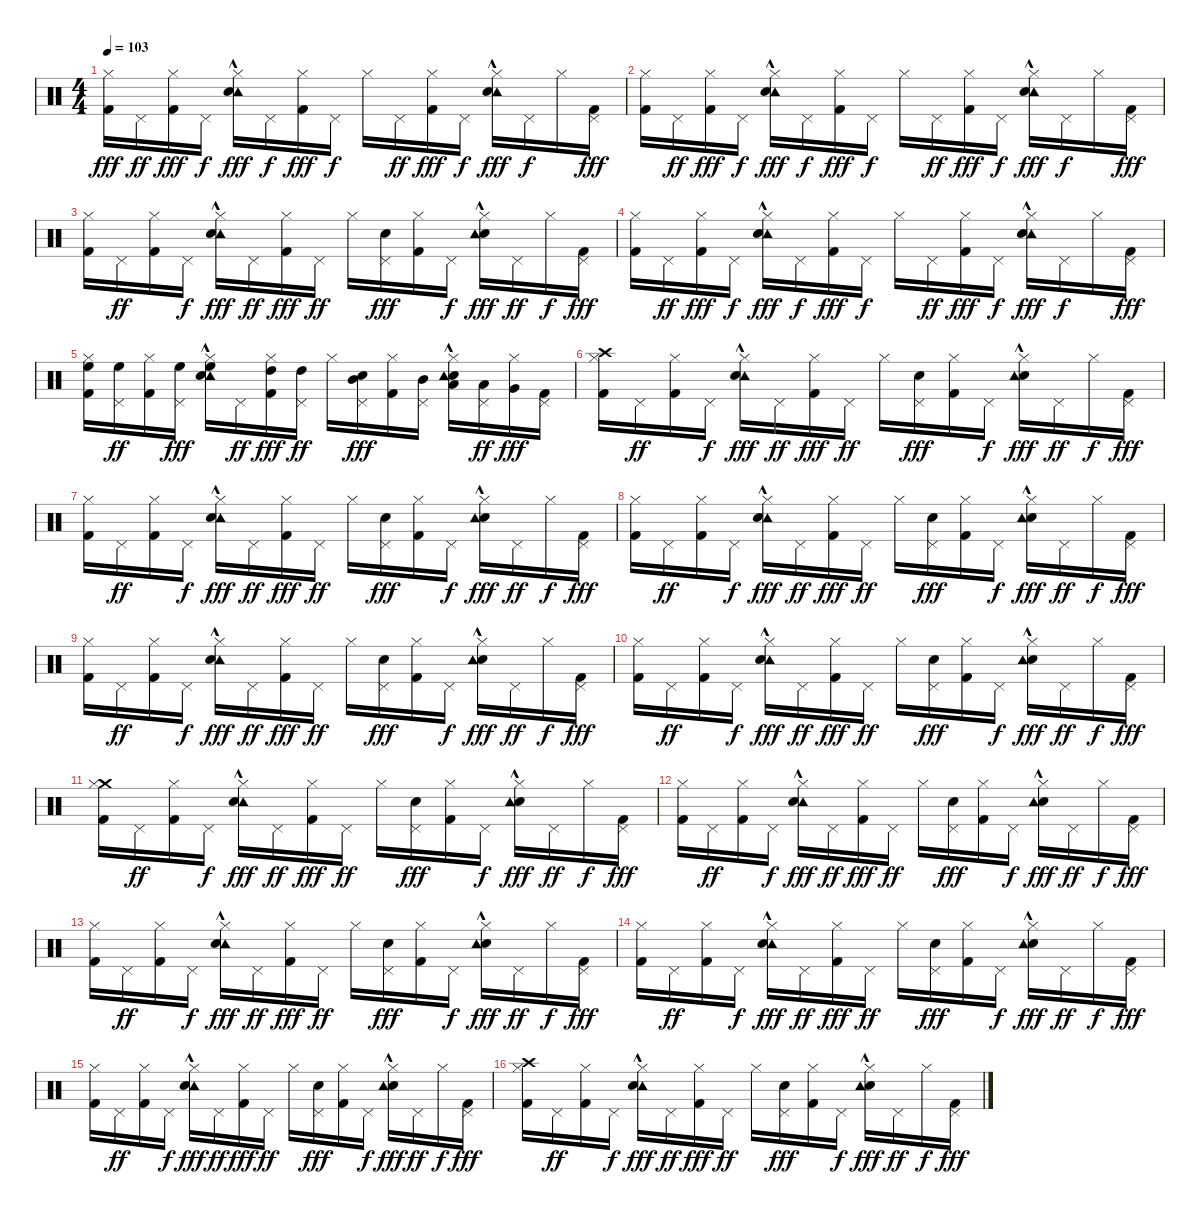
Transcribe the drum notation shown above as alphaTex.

\track "" {instrument percussion}
\staff {score}
\articulation defaults
\ts (4 4)
\tempo 103
\clef neutral
\ks c
("Hi-Hat (closed)" "Kick (hit) 2").16{dy fff} "Pedal Hi-Hat (hit)".16{dy ff} ("Hi-Hat (closed)" "Kick (hit) 2").16{dy fff} "Pedal Hi-Hat (hit)".16{dy f} ("Tambourine (hit)"{hac} "Hi-Hat (closed)" "Electric Snare (hit)").16{dy fff} "Pedal Hi-Hat (hit)".16{dy f} ("Kick (hit) 2" "Hi-Hat (closed)").16{dy fff} "Pedal Hi-Hat (hit)".16{dy f} "Hi-Hat (closed)".16 "Pedal Hi-Hat (hit)".16{dy ff} ("Kick (hit) 2" "Hi-Hat (closed)").16{dy fff} "Pedal Hi-Hat (hit)".16{dy f} ("Tambourine (hit)"{hac} "Electric Snare (hit)" "Hi-Hat (closed)").16{dy fff} "Pedal Hi-Hat (hit)".16{dy f} "Hi-Hat (closed)".16 ("Kick (hit) 2" "Pedal Hi-Hat (hit)").16{dy fff} |
("Hi-Hat (closed)" "Kick (hit) 2").16 "Pedal Hi-Hat (hit)".16{dy ff} ("Hi-Hat (closed)" "Kick (hit) 2").16{dy fff} "Pedal Hi-Hat (hit)".16{dy f} ("Tambourine (hit)"{hac} "Hi-Hat (closed)" "Electric Snare (hit)").16{dy fff} "Pedal Hi-Hat (hit)".16{dy f} ("Kick (hit) 2" "Hi-Hat (closed)").16{dy fff} "Pedal Hi-Hat (hit)".16{dy f} "Hi-Hat (closed)".16 "Pedal Hi-Hat (hit)".16{dy ff} ("Kick (hit) 2" "Hi-Hat (closed)").16{dy fff} "Pedal Hi-Hat (hit)".16{dy f} ("Tambourine (hit)"{hac} "Electric Snare (hit)" "Hi-Hat (closed)").16{dy fff} "Pedal Hi-Hat (hit)".16{dy f} "Hi-Hat (closed)".16 ("Kick (hit) 2" "Pedal Hi-Hat (hit)").16{dy fff} |
("Kick (hit) 2" "Hi-Hat (closed)").16 "Pedal Hi-Hat (hit)".16{dy ff} ("Kick (hit) 2" "Hi-Hat (closed)").16 "Pedal Hi-Hat (hit)".16{dy f} ("Tambourine (hit)"{hac} "Hi-Hat (closed)" "Electric Snare (hit)").16{dy fff} "Pedal Hi-Hat (hit)".16{dy ff} ("Hi-Hat (closed)" "Kick (hit) 2").16{dy fff} "Pedal Hi-Hat (hit)".16{dy ff} "Hi-Hat (closed)".16 ("Pedal Hi-Hat (hit)" "Electric Snare (hit)").16{dy fff} ("Kick (hit) 2" "Hi-Hat (closed)").16 "Pedal Hi-Hat (hit)".16{dy f} ("Electric Snare (hit)" "Hi-Hat (closed)" "Tambourine (hit)"{hac}).16{dy fff} "Pedal Hi-Hat (hit)".16{dy ff} "Hi-Hat (closed)".16{dy f} ("Pedal Hi-Hat (hit)" "Kick (hit) 2").16{dy fff} |
("Hi-Hat (closed)" "Kick (hit) 2").16 "Pedal Hi-Hat (hit)".16{dy ff} ("Hi-Hat (closed)" "Kick (hit) 2").16{dy fff} "Pedal Hi-Hat (hit)".16{dy f} ("Tambourine (hit)"{hac} "Hi-Hat (closed)" "Electric Snare (hit)").16{dy fff} "Pedal Hi-Hat (hit)".16{dy f} ("Kick (hit) 2" "Hi-Hat (closed)").16{dy fff} "Pedal Hi-Hat (hit)".16{dy f} "Hi-Hat (closed)".16 "Pedal Hi-Hat (hit)".16{dy ff} ("Kick (hit) 2" "Hi-Hat (closed)").16{dy fff} "Pedal Hi-Hat (hit)".16{dy f} ("Tambourine (hit)"{hac} "Electric Snare (hit)" "Hi-Hat (closed)").16{dy fff} "Pedal Hi-Hat (hit)".16{dy f} "Hi-Hat (closed)".16 ("Kick (hit) 2" "Pedal Hi-Hat (hit)").16{dy fff} |
("High Floor Tom (hit)" "Kick (hit) 2" "Hi-Hat (closed)").16 ("High Floor Tom (hit)" "Pedal Hi-Hat (hit)").16{dy ff} ("Kick (hit) 2" "Hi-Hat (closed)").16 ("High Floor Tom (hit)" "Pedal Hi-Hat (hit)").16{dy fff} ("High Floor Tom (hit)" "Tambourine (hit)"{hac} "Hi-Hat (closed)" "Electric Snare (hit)").16 "Pedal Hi-Hat (hit)".16{dy ff} ("High Tom (hit)" "Hi-Hat (closed)" "Kick (hit) 2").16{dy fff} ("High Tom (hit)" "Pedal Hi-Hat (hit)").16{dy ff} "Hi-Hat (closed)".16 ("Mid Tom (hit)" "Pedal Hi-Hat (hit)" "Electric Snare (hit)").16{dy fff} ("Kick (hit) 2" "Hi-Hat (closed)").16 ("Mid Tom (hit)" "Pedal Hi-Hat (hit)").16 ("Low Tom (hit)" "Electric Snare (hit)" "Hi-Hat (closed)" "Tambourine (hit)"{hac}).16 ("Low Tom (hit)" "Pedal Hi-Hat (hit)").16{dy ff} ("Very Low Tom (hit)" "Hi-Hat (closed)").16{dy fff} ("Pedal Hi-Hat (hit)" "Kick (hit) 2").16 |
("Crash high (hit)" "Kick (hit) 2" "Hi-Hat (closed)").16 "Pedal Hi-Hat (hit)".16{dy ff} ("Kick (hit) 2" "Hi-Hat (closed)").16 "Pedal Hi-Hat (hit)".16{dy f} ("Tambourine (hit)"{hac} "Hi-Hat (closed)" "Electric Snare (hit)").16{dy fff} "Pedal Hi-Hat (hit)".16{dy ff} ("Hi-Hat (closed)" "Kick (hit) 2").16{dy fff} "Pedal Hi-Hat (hit)".16{dy ff} "Hi-Hat (closed)".16 ("Pedal Hi-Hat (hit)" "Electric Snare (hit)").16{dy fff} ("Kick (hit) 2" "Hi-Hat (closed)").16 "Pedal Hi-Hat (hit)".16{dy f} ("Electric Snare (hit)" "Hi-Hat (closed)" "Tambourine (hit)"{hac}).16{dy fff} "Pedal Hi-Hat (hit)".16{dy ff} "Hi-Hat (closed)".16{dy f} ("Pedal Hi-Hat (hit)" "Kick (hit) 2").16{dy fff} |
("Kick (hit) 2" "Hi-Hat (closed)").16 "Pedal Hi-Hat (hit)".16{dy ff} ("Kick (hit) 2" "Hi-Hat (closed)").16 "Pedal Hi-Hat (hit)".16{dy f} ("Tambourine (hit)"{hac} "Hi-Hat (closed)" "Electric Snare (hit)").16{dy fff} "Pedal Hi-Hat (hit)".16{dy ff} ("Hi-Hat (closed)" "Kick (hit) 2").16{dy fff} "Pedal Hi-Hat (hit)".16{dy ff} "Hi-Hat (closed)".16 ("Pedal Hi-Hat (hit)" "Electric Snare (hit)").16{dy fff} ("Kick (hit) 2" "Hi-Hat (closed)").16 "Pedal Hi-Hat (hit)".16{dy f} ("Electric Snare (hit)" "Hi-Hat (closed)" "Tambourine (hit)"{hac}).16{dy fff} "Pedal Hi-Hat (hit)".16{dy ff} "Hi-Hat (closed)".16{dy f} ("Pedal Hi-Hat (hit)" "Kick (hit) 2").16{dy fff} |
("Kick (hit) 2" "Hi-Hat (closed)").16 "Pedal Hi-Hat (hit)".16{dy ff} ("Kick (hit) 2" "Hi-Hat (closed)").16 "Pedal Hi-Hat (hit)".16{dy f} ("Tambourine (hit)"{hac} "Hi-Hat (closed)" "Electric Snare (hit)").16{dy fff} "Pedal Hi-Hat (hit)".16{dy ff} ("Hi-Hat (closed)" "Kick (hit) 2").16{dy fff} "Pedal Hi-Hat (hit)".16{dy ff} "Hi-Hat (closed)".16 ("Pedal Hi-Hat (hit)" "Electric Snare (hit)").16{dy fff} ("Kick (hit) 2" "Hi-Hat (closed)").16 "Pedal Hi-Hat (hit)".16{dy f} ("Electric Snare (hit)" "Hi-Hat (closed)" "Tambourine (hit)"{hac}).16{dy fff} "Pedal Hi-Hat (hit)".16{dy ff} "Hi-Hat (closed)".16{dy f} ("Pedal Hi-Hat (hit)" "Kick (hit) 2").16{dy fff} |
("Kick (hit) 2" "Hi-Hat (closed)").16 "Pedal Hi-Hat (hit)".16{dy ff} ("Kick (hit) 2" "Hi-Hat (closed)").16 "Pedal Hi-Hat (hit)".16{dy f} ("Tambourine (hit)"{hac} "Hi-Hat (closed)" "Electric Snare (hit)").16{dy fff} "Pedal Hi-Hat (hit)".16{dy ff} ("Hi-Hat (closed)" "Kick (hit) 2").16{dy fff} "Pedal Hi-Hat (hit)".16{dy ff} "Hi-Hat (closed)".16 ("Pedal Hi-Hat (hit)" "Electric Snare (hit)").16{dy fff} ("Kick (hit) 2" "Hi-Hat (closed)").16 "Pedal Hi-Hat (hit)".16{dy f} ("Electric Snare (hit)" "Hi-Hat (closed)" "Tambourine (hit)"{hac}).16{dy fff} "Pedal Hi-Hat (hit)".16{dy ff} "Hi-Hat (closed)".16{dy f} ("Pedal Hi-Hat (hit)" "Kick (hit) 2").16{dy fff} |
("Kick (hit) 2" "Hi-Hat (closed)").16 "Pedal Hi-Hat (hit)".16{dy ff} ("Kick (hit) 2" "Hi-Hat (closed)").16 "Pedal Hi-Hat (hit)".16{dy f} ("Tambourine (hit)"{hac} "Hi-Hat (closed)" "Electric Snare (hit)").16{dy fff} "Pedal Hi-Hat (hit)".16{dy ff} ("Hi-Hat (closed)" "Kick (hit) 2").16{dy fff} "Pedal Hi-Hat (hit)".16{dy ff} "Hi-Hat (closed)".16 ("Pedal Hi-Hat (hit)" "Electric Snare (hit)").16{dy fff} ("Kick (hit) 2" "Hi-Hat (closed)").16 "Pedal Hi-Hat (hit)".16{dy f} ("Electric Snare (hit)" "Hi-Hat (closed)" "Tambourine (hit)"{hac}).16{dy fff} "Pedal Hi-Hat (hit)".16{dy ff} "Hi-Hat (closed)".16{dy f} ("Pedal Hi-Hat (hit)" "Kick (hit) 2").16{dy fff} |
("Crash medium (hit)" "Kick (hit) 2" "Hi-Hat (closed)").16 "Pedal Hi-Hat (hit)".16{dy ff} ("Kick (hit) 2" "Hi-Hat (closed)").16 "Pedal Hi-Hat (hit)".16{dy f} ("Tambourine (hit)"{hac} "Hi-Hat (closed)" "Electric Snare (hit)").16{dy fff} "Pedal Hi-Hat (hit)".16{dy ff} ("Hi-Hat (closed)" "Kick (hit) 2").16{dy fff} "Pedal Hi-Hat (hit)".16{dy ff} "Hi-Hat (closed)".16 ("Pedal Hi-Hat (hit)" "Electric Snare (hit)").16{dy fff} ("Kick (hit) 2" "Hi-Hat (closed)").16 "Pedal Hi-Hat (hit)".16{dy f} ("Electric Snare (hit)" "Hi-Hat (closed)" "Tambourine (hit)"{hac}).16{dy fff} "Pedal Hi-Hat (hit)".16{dy ff} "Hi-Hat (closed)".16{dy f} ("Pedal Hi-Hat (hit)" "Kick (hit) 2").16{dy fff} |
("Kick (hit) 2" "Hi-Hat (closed)").16 "Pedal Hi-Hat (hit)".16{dy ff} ("Kick (hit) 2" "Hi-Hat (closed)").16 "Pedal Hi-Hat (hit)".16{dy f} ("Tambourine (hit)"{hac} "Hi-Hat (closed)" "Electric Snare (hit)").16{dy fff} "Pedal Hi-Hat (hit)".16{dy ff} ("Hi-Hat (closed)" "Kick (hit) 2").16{dy fff} "Pedal Hi-Hat (hit)".16{dy ff} "Hi-Hat (closed)".16 ("Pedal Hi-Hat (hit)" "Electric Snare (hit)").16{dy fff} ("Kick (hit) 2" "Hi-Hat (closed)").16 "Pedal Hi-Hat (hit)".16{dy f} ("Electric Snare (hit)" "Hi-Hat (closed)" "Tambourine (hit)"{hac}).16{dy fff} "Pedal Hi-Hat (hit)".16{dy ff} "Hi-Hat (closed)".16{dy f} ("Pedal Hi-Hat (hit)" "Kick (hit) 2").16{dy fff} |
("Kick (hit) 2" "Hi-Hat (closed)").16 "Pedal Hi-Hat (hit)".16{dy ff} ("Kick (hit) 2" "Hi-Hat (closed)").16 "Pedal Hi-Hat (hit)".16{dy f} ("Tambourine (hit)"{hac} "Hi-Hat (closed)" "Electric Snare (hit)").16{dy fff} "Pedal Hi-Hat (hit)".16{dy ff} ("Hi-Hat (closed)" "Kick (hit) 2").16{dy fff} "Pedal Hi-Hat (hit)".16{dy ff} "Hi-Hat (closed)".16 ("Pedal Hi-Hat (hit)" "Electric Snare (hit)").16{dy fff} ("Kick (hit) 2" "Hi-Hat (closed)").16 "Pedal Hi-Hat (hit)".16{dy f} ("Electric Snare (hit)" "Hi-Hat (closed)" "Tambourine (hit)"{hac}).16{dy fff} "Pedal Hi-Hat (hit)".16{dy ff} "Hi-Hat (closed)".16{dy f} ("Pedal Hi-Hat (hit)" "Kick (hit) 2").16{dy fff} |
("Kick (hit) 2" "Hi-Hat (closed)").16 "Pedal Hi-Hat (hit)".16{dy ff} ("Kick (hit) 2" "Hi-Hat (closed)").16 "Pedal Hi-Hat (hit)".16{dy f} ("Tambourine (hit)"{hac} "Hi-Hat (closed)" "Electric Snare (hit)").16{dy fff} "Pedal Hi-Hat (hit)".16{dy ff} ("Hi-Hat (closed)" "Kick (hit) 2").16{dy fff} "Pedal Hi-Hat (hit)".16{dy ff} "Hi-Hat (closed)".16 ("Pedal Hi-Hat (hit)" "Electric Snare (hit)").16{dy fff} ("Kick (hit) 2" "Hi-Hat (closed)").16 "Pedal Hi-Hat (hit)".16{dy f} ("Electric Snare (hit)" "Hi-Hat (closed)" "Tambourine (hit)"{hac}).16{dy fff} "Pedal Hi-Hat (hit)".16{dy ff} "Hi-Hat (closed)".16{dy f} ("Pedal Hi-Hat (hit)" "Kick (hit) 2").16{dy fff} |
("Kick (hit) 2" "Hi-Hat (closed)").16 "Pedal Hi-Hat (hit)".16{dy ff} ("Kick (hit) 2" "Hi-Hat (closed)").16 "Pedal Hi-Hat (hit)".16{dy f} ("Tambourine (hit)"{hac} "Hi-Hat (closed)" "Electric Snare (hit)").16{dy fff} "Pedal Hi-Hat (hit)".16{dy ff} ("Hi-Hat (closed)" "Kick (hit) 2").16{dy fff} "Pedal Hi-Hat (hit)".16{dy ff} "Hi-Hat (closed)".16 ("Pedal Hi-Hat (hit)" "Electric Snare (hit)").16{dy fff} ("Kick (hit) 2" "Hi-Hat (closed)").16 "Pedal Hi-Hat (hit)".16{dy f} ("Electric Snare (hit)" "Hi-Hat (closed)" "Tambourine (hit)"{hac}).16{dy fff} "Pedal Hi-Hat (hit)".16{dy ff} "Hi-Hat (closed)".16{dy f} ("Pedal Hi-Hat (hit)" "Kick (hit) 2").16{dy fff} |
("Crash high (hit)" "Kick (hit) 2" "Hi-Hat (closed)").16 "Pedal Hi-Hat (hit)".16{dy ff} ("Kick (hit) 2" "Hi-Hat (closed)").16 "Pedal Hi-Hat (hit)".16{dy f} ("Tambourine (hit)"{hac} "Hi-Hat (closed)" "Electric Snare (hit)").16{dy fff} "Pedal Hi-Hat (hit)".16{dy ff} ("Hi-Hat (closed)" "Kick (hit) 2").16{dy fff} "Pedal Hi-Hat (hit)".16{dy ff} "Hi-Hat (closed)".16 ("Pedal Hi-Hat (hit)" "Electric Snare (hit)").16{dy fff} ("Kick (hit) 2" "Hi-Hat (closed)").16 "Pedal Hi-Hat (hit)".16{dy f} ("Electric Snare (hit)" "Hi-Hat (closed)" "Tambourine (hit)"{hac}).16{dy fff} "Pedal Hi-Hat (hit)".16{dy ff} "Hi-Hat (closed)".16{dy f} ("Pedal Hi-Hat (hit)" "Kick (hit) 2").16{dy fff}
